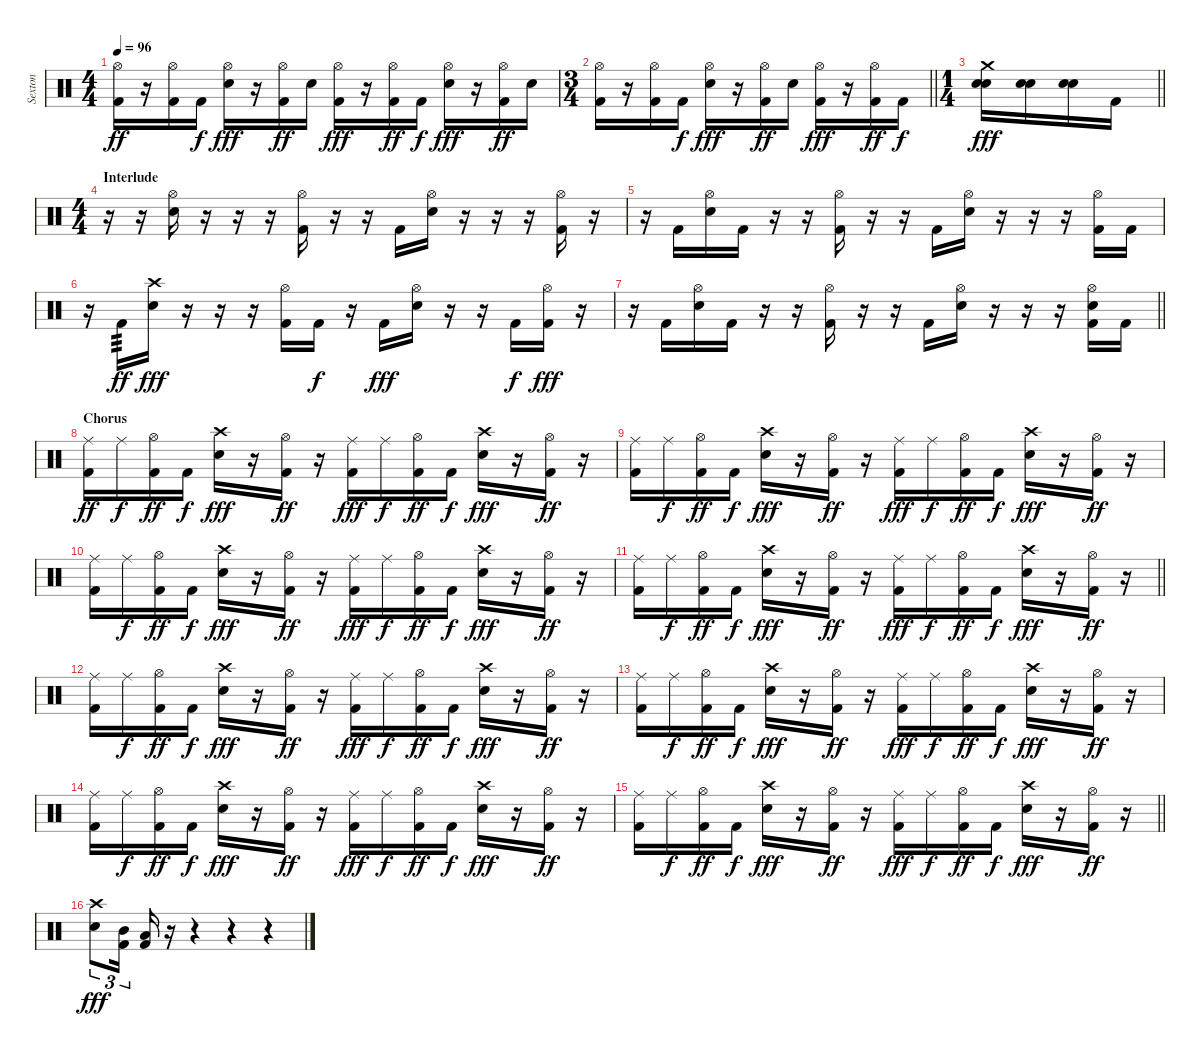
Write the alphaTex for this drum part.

\track ("Sexton" "Sexton") {instrument percussion}
\staff {score}
\articulation defaults
\ts (4 4)
\tempo 96
\clef neutral
\ks c
("Hi-Hat (open)" "Kick (hit) 2").16{dy ff} r.16 ("Hi-Hat (open)" "Kick (hit) 2").16 "Kick (hit) 2".16{dy f} ("Hi-Hat (open)" "Electric Snare (hit)").16{dy fff} r.16 ("Hi-Hat (open)" "Kick (hit) 2").16{dy ff} "Electric Snare (hit)".16 ("Hi-Hat (open)" "Kick (hit) 2").16{dy fff} r.16 ("Hi-Hat (open)" "Kick (hit) 2").16{dy ff} "Kick (hit) 2".16{dy f} ("Hi-Hat (open)" "Electric Snare (hit)").16{dy fff} r.16 ("Hi-Hat (open)" "Kick (hit) 2").16{dy ff} "Electric Snare (hit)".16 |
\ts (3 4)
\barLineRight lightlight
("Hi-Hat (open)" "Kick (hit) 2").16 r.16 ("Hi-Hat (open)" "Kick (hit) 2").16 "Kick (hit) 2".16{dy f} ("Hi-Hat (open)" "Electric Snare (hit)").16{dy fff} r.16 ("Hi-Hat (open)" "Kick (hit) 2").16{dy ff} "Electric Snare (hit)".16 ("Hi-Hat (open)" "Kick (hit) 2").16{dy fff} r.16 ("Hi-Hat (open)" "Kick (hit) 2").16{dy ff} "Kick (hit) 2".16{dy f} |
\ts (1 4)
\barLineRight lightlight
("Crash medium (hit)" "Electric Snare (hit)" "Electric Snare (hit)").16{dy fff} ("Electric Snare (hit)" "Electric Snare (hit)").16 ("Electric Snare (hit)" "Electric Snare (hit)").16 "Kick (hit) 2".16 |
\ts (4 4)
\section ("" "Interlude")
r.16 r.16 ("Hi-Hat (open)" "Electric Snare (hit)").16 r.16 r.16 r.16 ("Hi-Hat (open)" "Kick (hit) 2").16 r.16 r.16 "Kick (hit) 2".16 ("Hi-Hat (open)" "Electric Snare (hit)").16 r.16 r.16 r.16 ("Hi-Hat (open)" "Kick (hit) 2").16 r.16 |
r.16 "Kick (hit) 2".16 ("Hi-Hat (open)" "Electric Snare (hit)").16 "Kick (hit) 2".16 r.16 r.16 ("Hi-Hat (open)" "Kick (hit) 2").16 r.16 r.16 "Kick (hit) 2".16 ("Hi-Hat (open)" "Electric Snare (hit)").16 r.16 r.16 r.16 ("Hi-Hat (open)" "Kick (hit) 2").16 "Kick (hit) 2".16 |
r.16 "Kick (hit) 2".16{tp 3 dy ff} ("Crash high (hit)" "Electric Snare (hit)").16{dy fff} r.16 r.16 r.16 ("Hi-Hat (open)" "Kick (hit) 2").16 "Kick (hit) 2".16{dy f} r.16 "Kick (hit) 2".16{dy fff} ("Hi-Hat (open)" "Electric Snare (hit)").16 r.16 r.16 "Kick (hit) 2".16{dy f} ("Hi-Hat (open)" "Kick (hit) 2").16{dy fff} r.16 |
\barLineRight lightlight
r.16 "Kick (hit) 2".16 ("Hi-Hat (open)" "Electric Snare (hit)").16 "Kick (hit) 2".16 r.16 r.16 ("Hi-Hat (open)" "Kick (hit) 2").16 r.16 r.16 "Kick (hit) 2".16 ("Hi-Hat (open)" "Electric Snare (hit)").16 r.16 r.16 r.16 ("Hi-Hat (open)" "Electric Snare (hit)" "Kick (hit) 2").16 "Kick (hit) 2".16 |
\section ("" "Chorus")
("Ride (middle)" "Kick (hit) 2").16{dy ff} "Ride (middle)".16{dy f} ("Hi-Hat (open)" "Kick (hit) 2").16{dy ff} "Kick (hit) 2".16{dy f} ("Crash high (hit)" "Electric Snare (hit)").16{dy fff} r.16 ("Hi-Hat (open)" "Kick (hit) 2").16{dy ff} r.16 ("Ride (middle)" "Kick (hit) 2").16{dy fff} "Ride (middle)".16{dy f} ("Hi-Hat (open)" "Kick (hit) 2").16{dy ff} "Kick (hit) 2".16{dy f} ("Crash high (hit)" "Electric Snare (hit)").16{dy fff} r.16 ("Hi-Hat (open)" "Kick (hit) 2").16{dy ff} r.16 |
("Ride (middle)" "Kick (hit) 2").16 "Ride (middle)".16{dy f} ("Hi-Hat (open)" "Kick (hit) 2").16{dy ff} "Kick (hit) 2".16{dy f} ("Crash high (hit)" "Electric Snare (hit)").16{dy fff} r.16 ("Hi-Hat (open)" "Kick (hit) 2").16{dy ff} r.16 ("Ride (middle)" "Kick (hit) 2").16{dy fff} "Ride (middle)".16{dy f} ("Hi-Hat (open)" "Kick (hit) 2").16{dy ff} "Kick (hit) 2".16{dy f} ("Crash high (hit)" "Electric Snare (hit)").16{dy fff} r.16 ("Hi-Hat (open)" "Kick (hit) 2").16{dy ff} r.16 |
("Ride (middle)" "Kick (hit) 2").16 "Ride (middle)".16{dy f} ("Hi-Hat (open)" "Kick (hit) 2").16{dy ff} "Kick (hit) 2".16{dy f} ("Crash high (hit)" "Electric Snare (hit)").16{dy fff} r.16 ("Hi-Hat (open)" "Kick (hit) 2").16{dy ff} r.16 ("Ride (middle)" "Kick (hit) 2").16{dy fff} "Ride (middle)".16{dy f} ("Hi-Hat (open)" "Kick (hit) 2").16{dy ff} "Kick (hit) 2".16{dy f} ("Crash high (hit)" "Electric Snare (hit)").16{dy fff} r.16 ("Hi-Hat (open)" "Kick (hit) 2").16{dy ff} r.16 |
\barLineRight lightlight
("Ride (middle)" "Kick (hit) 2").16 "Ride (middle)".16{dy f} ("Hi-Hat (open)" "Kick (hit) 2").16{dy ff} "Kick (hit) 2".16{dy f} ("Crash high (hit)" "Electric Snare (hit)").16{dy fff} r.16 ("Hi-Hat (open)" "Kick (hit) 2").16{dy ff} r.16 ("Ride (middle)" "Kick (hit) 2").16{dy fff} "Ride (middle)".16{dy f} ("Hi-Hat (open)" "Kick (hit) 2").16{dy ff} "Kick (hit) 2".16{dy f} ("Crash high (hit)" "Electric Snare (hit)").16{dy fff} r.16 ("Hi-Hat (open)" "Kick (hit) 2").16{dy ff} r.16 |
("Ride (middle)" "Kick (hit) 2").16 "Ride (middle)".16{dy f} ("Hi-Hat (open)" "Kick (hit) 2").16{dy ff} "Kick (hit) 2".16{dy f} ("Crash high (hit)" "Electric Snare (hit)").16{dy fff} r.16 ("Hi-Hat (open)" "Kick (hit) 2").16{dy ff} r.16 ("Ride (middle)" "Kick (hit) 2").16{dy fff} "Ride (middle)".16{dy f} ("Hi-Hat (open)" "Kick (hit) 2").16{dy ff} "Kick (hit) 2".16{dy f} ("Crash high (hit)" "Electric Snare (hit)").16{dy fff} r.16 ("Hi-Hat (open)" "Kick (hit) 2").16{dy ff} r.16 |
("Ride (middle)" "Kick (hit) 2").16 "Ride (middle)".16{dy f} ("Hi-Hat (open)" "Kick (hit) 2").16{dy ff} "Kick (hit) 2".16{dy f} ("Crash high (hit)" "Electric Snare (hit)").16{dy fff} r.16 ("Hi-Hat (open)" "Kick (hit) 2").16{dy ff} r.16 ("Ride (middle)" "Kick (hit) 2").16{dy fff} "Ride (middle)".16{dy f} ("Hi-Hat (open)" "Kick (hit) 2").16{dy ff} "Kick (hit) 2".16{dy f} ("Crash high (hit)" "Electric Snare (hit)").16{dy fff} r.16 ("Hi-Hat (open)" "Kick (hit) 2").16{dy ff} r.16 |
("Ride (middle)" "Kick (hit) 2").16 "Ride (middle)".16{dy f} ("Hi-Hat (open)" "Kick (hit) 2").16{dy ff} "Kick (hit) 2".16{dy f} ("Crash high (hit)" "Electric Snare (hit)").16{dy fff} r.16 ("Hi-Hat (open)" "Kick (hit) 2").16{dy ff} r.16 ("Ride (middle)" "Kick (hit) 2").16{dy fff} "Ride (middle)".16{dy f} ("Hi-Hat (open)" "Kick (hit) 2").16{dy ff} "Kick (hit) 2".16{dy f} ("Crash high (hit)" "Electric Snare (hit)").16{dy fff} r.16 ("Hi-Hat (open)" "Kick (hit) 2").16{dy ff} r.16 |
\barLineRight lightlight
("Ride (middle)" "Kick (hit) 2").16 "Ride (middle)".16{dy f} ("Hi-Hat (open)" "Kick (hit) 2").16{dy ff} "Kick (hit) 2".16{dy f} ("Crash high (hit)" "Electric Snare (hit)").16{dy fff} r.16 ("Hi-Hat (open)" "Kick (hit) 2").16{dy ff} r.16 ("Ride (middle)" "Kick (hit) 2").16{dy fff} "Ride (middle)".16{dy f} ("Hi-Hat (open)" "Kick (hit) 2").16{dy ff} "Kick (hit) 2".16{dy f} ("Crash high (hit)" "Electric Snare (hit)").16{dy fff} r.16 ("Hi-Hat (open)" "Kick (hit) 2").16{dy ff} r.16 |
("Crash high (hit)" "Electric Snare (hit)").8{tu (3 2) dy fff} ("Mid Tom (hit)" "Kick (hit) 2").16{tu (3 2)} ("Low Tom (hit)" "Kick (hit) 2").16 r.16 r.4 r.4 r.4
